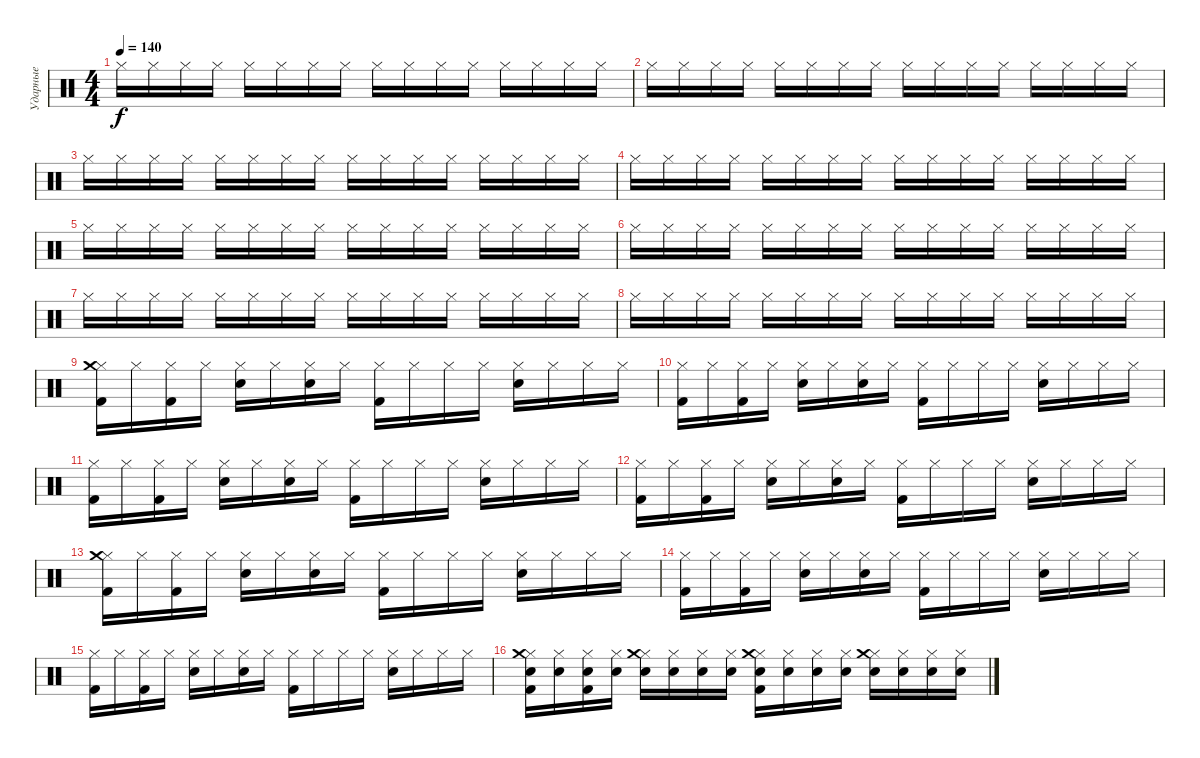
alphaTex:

\track ("Ударные" "Ударные") {instrument percussion}
\staff {score}
\articulation defaults
\ts (4 4)
\tempo 140
\clef neutral
\ks c "Hi-Hat (closed)".16{dy f} "Hi-Hat (closed)".16 "Hi-Hat (closed)".16 "Hi-Hat (closed)".16 "Hi-Hat (closed)".16 "Hi-Hat (closed)".16 "Hi-Hat (closed)".16 "Hi-Hat (closed)".16 "Hi-Hat (closed)".16 "Hi-Hat (closed)".16 "Hi-Hat (closed)".16 "Hi-Hat (closed)".16 "Hi-Hat (closed)".16 "Hi-Hat (closed)".16 "Hi-Hat (closed)".16 "Hi-Hat (closed)".16
|
"Hi-Hat (closed)".16 "Hi-Hat (closed)".16 "Hi-Hat (closed)".16 "Hi-Hat (closed)".16 "Hi-Hat (closed)".16 "Hi-Hat (closed)".16 "Hi-Hat (closed)".16 "Hi-Hat (closed)".16 "Hi-Hat (closed)".16 "Hi-Hat (closed)".16 "Hi-Hat (closed)".16 "Hi-Hat (closed)".16 "Hi-Hat (closed)".16 "Hi-Hat (closed)".16 "Hi-Hat (closed)".16 "Hi-Hat (closed)".16 |
"Hi-Hat (closed)".16 "Hi-Hat (closed)".16 "Hi-Hat (closed)".16 "Hi-Hat (closed)".16 "Hi-Hat (closed)".16 "Hi-Hat (closed)".16 "Hi-Hat (closed)".16 "Hi-Hat (closed)".16 "Hi-Hat (closed)".16 "Hi-Hat (closed)".16 "Hi-Hat (closed)".16 "Hi-Hat (closed)".16 "Hi-Hat (closed)".16 "Hi-Hat (closed)".16 "Hi-Hat (closed)".16 "Hi-Hat (closed)".16 |
"Hi-Hat (closed)".16 "Hi-Hat (closed)".16 "Hi-Hat (closed)".16 "Hi-Hat (closed)".16 "Hi-Hat (closed)".16 "Hi-Hat (closed)".16 "Hi-Hat (closed)".16 "Hi-Hat (closed)".16 "Hi-Hat (closed)".16 "Hi-Hat (closed)".16 "Hi-Hat (closed)".16 "Hi-Hat (closed)".16 "Hi-Hat (closed)".16 "Hi-Hat (closed)".16 "Hi-Hat (closed)".16 "Hi-Hat (closed)".16 |
"Hi-Hat (closed)".16 "Hi-Hat (closed)".16 "Hi-Hat (closed)".16 "Hi-Hat (closed)".16 "Hi-Hat (closed)".16 "Hi-Hat (closed)".16 "Hi-Hat (closed)".16 "Hi-Hat (closed)".16 "Hi-Hat (closed)".16 "Hi-Hat (closed)".16 "Hi-Hat (closed)".16 "Hi-Hat (closed)".16 "Hi-Hat (closed)".16 "Hi-Hat (closed)".16 "Hi-Hat (closed)".16 "Hi-Hat (closed)".16 |
"Hi-Hat (closed)".16 "Hi-Hat (closed)".16 "Hi-Hat (closed)".16 "Hi-Hat (closed)".16 "Hi-Hat (closed)".16 "Hi-Hat (closed)".16 "Hi-Hat (closed)".16 "Hi-Hat (closed)".16 "Hi-Hat (closed)".16 "Hi-Hat (closed)".16 "Hi-Hat (closed)".16 "Hi-Hat (closed)".16 "Hi-Hat (closed)".16 "Hi-Hat (closed)".16 "Hi-Hat (closed)".16 "Hi-Hat (closed)".16 |
"Hi-Hat (closed)".16 "Hi-Hat (closed)".16 "Hi-Hat (closed)".16 "Hi-Hat (closed)".16 "Hi-Hat (closed)".16 "Hi-Hat (closed)".16 "Hi-Hat (closed)".16 "Hi-Hat (closed)".16 "Hi-Hat (closed)".16 "Hi-Hat (closed)".16 "Hi-Hat (closed)".16 "Hi-Hat (closed)".16 "Hi-Hat (closed)".16 "Hi-Hat (closed)".16 "Hi-Hat (closed)".16 "Hi-Hat (closed)".16 |
"Hi-Hat (closed)".16 "Hi-Hat (closed)".16 "Hi-Hat (closed)".16 "Hi-Hat (closed)".16 "Hi-Hat (closed)".16 "Hi-Hat (closed)".16 "Hi-Hat (closed)".16 "Hi-Hat (closed)".16 "Hi-Hat (closed)".16 "Hi-Hat (closed)".16 "Hi-Hat (closed)".16 "Hi-Hat (closed)".16 "Hi-Hat (closed)".16 "Hi-Hat (closed)".16 "Hi-Hat (closed)".16 "Hi-Hat (closed)".16 |
("Hi-Hat (closed)" "Kick (hit) 2" "Crash medium (hit)").16 "Hi-Hat (closed)".16 ("Hi-Hat (closed)" "Kick (hit) 2").16 "Hi-Hat (closed)".16 ("Hi-Hat (closed)" "Electric Snare (hit)").16 "Hi-Hat (closed)".16 ("Hi-Hat (closed)" "Electric Snare (hit)").16 "Hi-Hat (closed)".16 ("Hi-Hat (closed)" "Kick (hit) 2").16 "Hi-Hat (closed)".16 "Hi-Hat (closed)".16 "Hi-Hat (closed)".16 ("Hi-Hat (closed)" "Electric Snare (hit)").16 "Hi-Hat (closed)".16 "Hi-Hat (closed)".16 "Hi-Hat (closed)".16 |
("Hi-Hat (closed)" "Kick (hit) 2").16 "Hi-Hat (closed)".16 ("Hi-Hat (closed)" "Kick (hit) 2").16 "Hi-Hat (closed)".16 ("Hi-Hat (closed)" "Electric Snare (hit)").16 "Hi-Hat (closed)".16 ("Hi-Hat (closed)" "Electric Snare (hit)").16 "Hi-Hat (closed)".16 ("Hi-Hat (closed)" "Kick (hit) 2").16 "Hi-Hat (closed)".16 "Hi-Hat (closed)".16 "Hi-Hat (closed)".16 ("Hi-Hat (closed)" "Electric Snare (hit)").16 "Hi-Hat (closed)".16 "Hi-Hat (closed)".16 "Hi-Hat (closed)".16 |
("Hi-Hat (closed)" "Kick (hit) 2").16 "Hi-Hat (closed)".16 ("Hi-Hat (closed)" "Kick (hit) 2").16 "Hi-Hat (closed)".16 ("Hi-Hat (closed)" "Electric Snare (hit)").16 "Hi-Hat (closed)".16 ("Hi-Hat (closed)" "Electric Snare (hit)").16 "Hi-Hat (closed)".16 ("Hi-Hat (closed)" "Kick (hit) 2").16 "Hi-Hat (closed)".16 "Hi-Hat (closed)".16 "Hi-Hat (closed)".16 ("Hi-Hat (closed)" "Electric Snare (hit)").16 "Hi-Hat (closed)".16 "Hi-Hat (closed)".16 "Hi-Hat (closed)".16 |
("Hi-Hat (closed)" "Kick (hit) 2").16 "Hi-Hat (closed)".16 ("Hi-Hat (closed)" "Kick (hit) 2").16 "Hi-Hat (closed)".16 ("Hi-Hat (closed)" "Electric Snare (hit)").16 "Hi-Hat (closed)".16 ("Hi-Hat (closed)" "Electric Snare (hit)").16 "Hi-Hat (closed)".16 ("Hi-Hat (closed)" "Kick (hit) 2").16 "Hi-Hat (closed)".16 "Hi-Hat (closed)".16 "Hi-Hat (closed)".16 ("Hi-Hat (closed)" "Electric Snare (hit)").16 "Hi-Hat (closed)".16 "Hi-Hat (closed)".16 "Hi-Hat (closed)".16 |
("Hi-Hat (closed)" "Kick (hit) 2" "Crash medium (hit)").16 "Hi-Hat (closed)".16 ("Hi-Hat (closed)" "Kick (hit) 2").16 "Hi-Hat (closed)".16 ("Hi-Hat (closed)" "Electric Snare (hit)").16 "Hi-Hat (closed)".16 ("Hi-Hat (closed)" "Electric Snare (hit)").16 "Hi-Hat (closed)".16 ("Hi-Hat (closed)" "Kick (hit) 2").16 "Hi-Hat (closed)".16 "Hi-Hat (closed)".16 "Hi-Hat (closed)".16 ("Hi-Hat (closed)" "Electric Snare (hit)").16 "Hi-Hat (closed)".16 "Hi-Hat (closed)".16 "Hi-Hat (closed)".16 |
("Hi-Hat (closed)" "Kick (hit) 2").16 "Hi-Hat (closed)".16 ("Hi-Hat (closed)" "Kick (hit) 2").16 "Hi-Hat (closed)".16 ("Hi-Hat (closed)" "Electric Snare (hit)").16 "Hi-Hat (closed)".16 ("Hi-Hat (closed)" "Electric Snare (hit)").16 "Hi-Hat (closed)".16 ("Hi-Hat (closed)" "Kick (hit) 2").16 "Hi-Hat (closed)".16 "Hi-Hat (closed)".16 "Hi-Hat (closed)".16 ("Hi-Hat (closed)" "Electric Snare (hit)").16 "Hi-Hat (closed)".16 "Hi-Hat (closed)".16 "Hi-Hat (closed)".16 |
("Hi-Hat (closed)" "Kick (hit) 2").16 "Hi-Hat (closed)".16 ("Hi-Hat (closed)" "Kick (hit) 2").16 "Hi-Hat (closed)".16 ("Hi-Hat (closed)" "Electric Snare (hit)").16 "Hi-Hat (closed)".16 ("Hi-Hat (closed)" "Electric Snare (hit)").16 "Hi-Hat (closed)".16 ("Hi-Hat (closed)" "Kick (hit) 2").16 "Hi-Hat (closed)".16 "Hi-Hat (closed)".16 "Hi-Hat (closed)".16 ("Hi-Hat (closed)" "Electric Snare (hit)").16 "Hi-Hat (closed)".16 "Hi-Hat (closed)".16 "Hi-Hat (closed)".16 |
("Hi-Hat (closed)" "Kick (hit) 2" "Electric Snare (hit)" "Crash medium (hit)").16 ("Hi-Hat (closed)" "Electric Snare (hit)").16 ("Hi-Hat (closed)" "Kick (hit) 2" "Electric Snare (hit)").16 ("Hi-Hat (closed)" "Electric Snare (hit)").16 ("Hi-Hat (closed)" "Electric Snare (hit)" "Crash medium (hit)").16 ("Hi-Hat (closed)" "Electric Snare (hit)").16 ("Hi-Hat (closed)" "Electric Snare (hit)").16 ("Hi-Hat (closed)" "Electric Snare (hit)").16 ("Hi-Hat (closed)" "Electric Snare (hit)" "Kick (hit) 2" "Crash medium (hit)").16 ("Hi-Hat (closed)" "Electric Snare (hit)").16 ("Hi-Hat (closed)" "Electric Snare (hit)").16 ("Hi-Hat (closed)" "Electric Snare (hit)").16 ("Hi-Hat (closed)" "Electric Snare (hit)" "Crash medium (hit)").16 ("Hi-Hat (closed)" "Electric Snare (hit)").16 ("Hi-Hat (closed)" "Electric Snare (hit)").16 ("Hi-Hat (closed)" "Electric Snare (hit)").16
